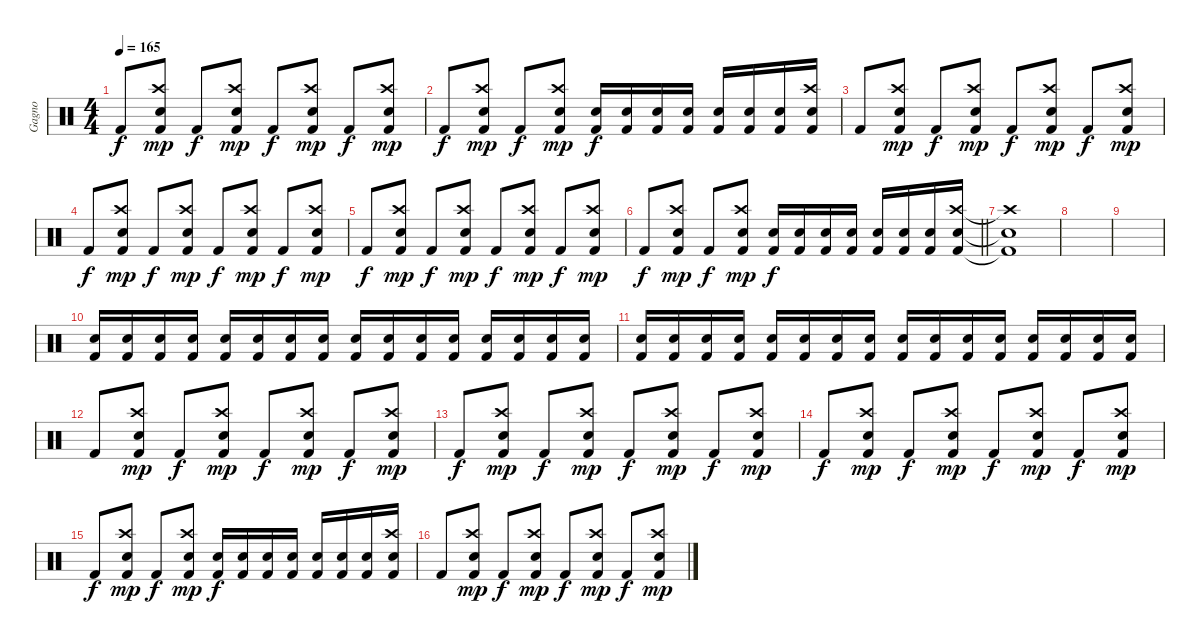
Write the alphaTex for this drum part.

\track ("Gagno" "Gagno") {instrument percussion}
\staff {score}
\articulation defaults
\ts (4 4)
\tempo 165
\clef neutral
\ks c "Kick (hit) 2".8{dy f}
("Crash high (hit)" "Electric Snare (hit)" "Kick (hit) 2").8{dy mp} "Kick (hit) 2".8{dy f} ("Crash high (hit)" "Electric Snare (hit)" "Kick (hit) 2").8{dy mp} "Kick (hit) 2".8{dy f} ("Crash high (hit)" "Electric Snare (hit)" "Kick (hit) 2").8{dy mp} "Kick (hit) 2".8{dy f} ("Crash high (hit)" "Electric Snare (hit)" "Kick (hit) 2").8{dy mp} |
"Kick (hit) 2".8{dy f} ("Crash high (hit)" "Electric Snare (hit)" "Kick (hit) 2").8{dy mp} "Kick (hit) 2".8{dy f} ("Crash high (hit)" "Electric Snare (hit)" "Kick (hit) 2").8{dy mp} ("Electric Snare (hit)" "Kick (hit) 2").16{dy f} ("Electric Snare (hit)" "Kick (hit) 2").16 ("Electric Snare (hit)" "Kick (hit) 2").16 ("Electric Snare (hit)" "Kick (hit) 2").16 ("Electric Snare (hit)" "Kick (hit) 2").16 ("Electric Snare (hit)" "Kick (hit) 2").16 ("Electric Snare (hit)" "Kick (hit) 2").16 ("Crash high (hit)" "Electric Snare (hit)" "Kick (hit) 2").16 |
"Kick (hit) 2".8 ("Crash high (hit)" "Electric Snare (hit)" "Kick (hit) 2").8{dy mp} "Kick (hit) 2".8{dy f} ("Crash high (hit)" "Electric Snare (hit)" "Kick (hit) 2").8{dy mp} "Kick (hit) 2".8{dy f} ("Crash high (hit)" "Electric Snare (hit)" "Kick (hit) 2").8{dy mp} "Kick (hit) 2".8{dy f} ("Crash high (hit)" "Electric Snare (hit)" "Kick (hit) 2").8{dy mp} |
"Kick (hit) 2".8{dy f} ("Crash high (hit)" "Electric Snare (hit)" "Kick (hit) 2").8{dy mp} "Kick (hit) 2".8{dy f} ("Crash high (hit)" "Electric Snare (hit)" "Kick (hit) 2").8{dy mp} "Kick (hit) 2".8{dy f} ("Crash high (hit)" "Electric Snare (hit)" "Kick (hit) 2").8{dy mp} "Kick (hit) 2".8{dy f} ("Crash high (hit)" "Electric Snare (hit)" "Kick (hit) 2").8{dy mp} |
"Kick (hit) 2".8{dy f} ("Crash high (hit)" "Electric Snare (hit)" "Kick (hit) 2").8{dy mp} "Kick (hit) 2".8{dy f} ("Crash high (hit)" "Electric Snare (hit)" "Kick (hit) 2").8{dy mp} "Kick (hit) 2".8{dy f} ("Crash high (hit)" "Electric Snare (hit)" "Kick (hit) 2").8{dy mp} "Kick (hit) 2".8{dy f} ("Crash high (hit)" "Electric Snare (hit)" "Kick (hit) 2").8{dy mp} |
\barLineRight lightlight "Kick (hit) 2".8{dy f}
("Crash high (hit)" "Electric Snare (hit)" "Kick (hit) 2").8{dy mp} "Kick (hit) 2".8{dy f} ("Crash high (hit)" "Electric Snare (hit)" "Kick (hit) 2").8{dy mp} ("Electric Snare (hit)" "Kick (hit) 2").16{dy f} ("Electric Snare (hit)" "Kick (hit) 2").16 ("Electric Snare (hit)" "Kick (hit) 2").16 ("Electric Snare (hit)" "Kick (hit) 2").16 ("Electric Snare (hit)" "Kick (hit) 2").16 ("Electric Snare (hit)" "Kick (hit) 2").16 ("Electric Snare (hit)" "Kick (hit) 2").16 ("Crash high (hit)" "Electric Snare (hit)" "Kick (hit) 2").16 |
("Crash high (hit)"{t} "Electric Snare (hit)"{t} "Kick (hit) 2"{t}).1 |
|
|
("Electric Snare (hit)" "Kick (hit) 2").16 ("Electric Snare (hit)" "Kick (hit) 2").16 ("Electric Snare (hit)" "Kick (hit) 2").16 ("Electric Snare (hit)" "Kick (hit) 2").16 ("Electric Snare (hit)" "Kick (hit) 2").16 ("Electric Snare (hit)" "Kick (hit) 2").16 ("Electric Snare (hit)" "Kick (hit) 2").16 ("Electric Snare (hit)" "Kick (hit) 2").16 ("Electric Snare (hit)" "Kick (hit) 2").16 ("Electric Snare (hit)" "Kick (hit) 2").16 ("Electric Snare (hit)" "Kick (hit) 2").16 ("Electric Snare (hit)" "Kick (hit) 2").16 ("Electric Snare (hit)" "Kick (hit) 2").16 ("Electric Snare (hit)" "Kick (hit) 2").16 ("Electric Snare (hit)" "Kick (hit) 2").16 ("Electric Snare (hit)" "Kick (hit) 2").16 |
("Electric Snare (hit)" "Kick (hit) 2").16 ("Electric Snare (hit)" "Kick (hit) 2").16 ("Electric Snare (hit)" "Kick (hit) 2").16 ("Electric Snare (hit)" "Kick (hit) 2").16 ("Electric Snare (hit)" "Kick (hit) 2").16 ("Electric Snare (hit)" "Kick (hit) 2").16 ("Electric Snare (hit)" "Kick (hit) 2").16 ("Electric Snare (hit)" "Kick (hit) 2").16 ("Electric Snare (hit)" "Kick (hit) 2").16 ("Electric Snare (hit)" "Kick (hit) 2").16 ("Electric Snare (hit)" "Kick (hit) 2").16 ("Electric Snare (hit)" "Kick (hit) 2").16 ("Electric Snare (hit)" "Kick (hit) 2").16 ("Electric Snare (hit)" "Kick (hit) 2").16 ("Electric Snare (hit)" "Kick (hit) 2").16 ("Electric Snare (hit)" "Kick (hit) 2").16 |
"Kick (hit) 2".8 ("Crash high (hit)" "Electric Snare (hit)" "Kick (hit) 2").8{dy mp} "Kick (hit) 2".8{dy f} ("Crash high (hit)" "Electric Snare (hit)" "Kick (hit) 2").8{dy mp} "Kick (hit) 2".8{dy f} ("Crash high (hit)" "Electric Snare (hit)" "Kick (hit) 2").8{dy mp} "Kick (hit) 2".8{dy f} ("Crash high (hit)" "Electric Snare (hit)" "Kick (hit) 2").8{dy mp} |
"Kick (hit) 2".8{dy f} ("Crash high (hit)" "Electric Snare (hit)" "Kick (hit) 2").8{dy mp} "Kick (hit) 2".8{dy f} ("Crash high (hit)" "Electric Snare (hit)" "Kick (hit) 2").8{dy mp} "Kick (hit) 2".8{dy f} ("Crash high (hit)" "Electric Snare (hit)" "Kick (hit) 2").8{dy mp} "Kick (hit) 2".8{dy f} ("Crash high (hit)" "Electric Snare (hit)" "Kick (hit) 2").8{dy mp} |
"Kick (hit) 2".8{dy f} ("Crash high (hit)" "Electric Snare (hit)" "Kick (hit) 2").8{dy mp} "Kick (hit) 2".8{dy f} ("Crash high (hit)" "Electric Snare (hit)" "Kick (hit) 2").8{dy mp} "Kick (hit) 2".8{dy f} ("Crash high (hit)" "Electric Snare (hit)" "Kick (hit) 2").8{dy mp} "Kick (hit) 2".8{dy f} ("Crash high (hit)" "Electric Snare (hit)" "Kick (hit) 2").8{dy mp} |
"Kick (hit) 2".8{dy f} ("Crash high (hit)" "Electric Snare (hit)" "Kick (hit) 2").8{dy mp} "Kick (hit) 2".8{dy f} ("Crash high (hit)" "Electric Snare (hit)" "Kick (hit) 2").8{dy mp} ("Electric Snare (hit)" "Kick (hit) 2").16{dy f} ("Electric Snare (hit)" "Kick (hit) 2").16 ("Electric Snare (hit)" "Kick (hit) 2").16 ("Electric Snare (hit)" "Kick (hit) 2").16 ("Electric Snare (hit)" "Kick (hit) 2").16 ("Electric Snare (hit)" "Kick (hit) 2").16 ("Electric Snare (hit)" "Kick (hit) 2").16 ("Crash high (hit)" "Electric Snare (hit)" "Kick (hit) 2").16 |
"Kick (hit) 2".8 ("Crash high (hit)" "Electric Snare (hit)" "Kick (hit) 2").8{dy mp} "Kick (hit) 2".8{dy f} ("Crash high (hit)" "Electric Snare (hit)" "Kick (hit) 2").8{dy mp} "Kick (hit) 2".8{dy f} ("Crash high (hit)" "Electric Snare (hit)" "Kick (hit) 2").8{dy mp} "Kick (hit) 2".8{dy f} ("Crash high (hit)" "Electric Snare (hit)" "Kick (hit) 2").8{dy mp}
